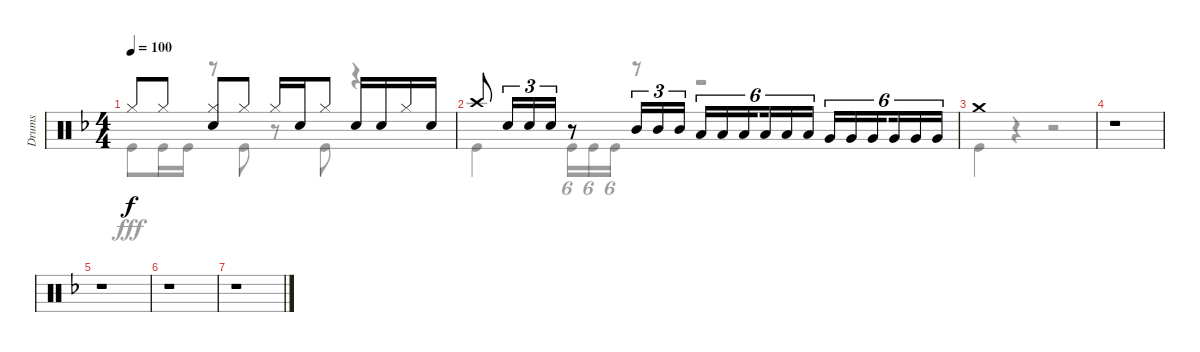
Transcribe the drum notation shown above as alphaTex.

\track ("Drums" "Drums") {instrument percussion}
\staff {score}
\articulation defaults
\voice
\ts (4 4)
\tempo 100
\clef neutral
\ks f "Hi-Hat (closed)".8{dy f} "Hi-Hat (closed)".8
("Hi-Hat (closed)" "Snare (hit) 2").8 "Hi-Hat (closed)".8 "Hi-Hat (closed)".16 "Snare (hit) 2".16 "Hi-Hat (closed)".8 "Snare (hit) 2".16 "Snare (hit) 2".16 "Hi-Hat (closed)".16 "Snare (hit) 2".16 |
"Crash high (hit)".8 "Snare (hit) 2".16{tu (3 2)} "Snare (hit) 2".16{tu (3 2)} "Snare (hit) 2".16{tu (3 2)} r.8 "Mid Tom (hit)".16{tu (3 2)} "Mid Tom (hit)".16{tu (3 2)} "Mid Tom (hit)".16{tu (3 2)} "Low Tom (hit)".16{tu (6 4)} "Low Tom (hit)".16{tu (6 4)} "Low Tom (hit)".16{tu (6 4) beam splitsecondary} "Low Tom (hit)".16{tu (6 4)} "Low Tom (hit)".16{tu (6 4)} "Low Tom (hit)".16{tu (6 4)} "Very Low Tom (hit)".16{tu (6 4)} "Very Low Tom (hit)".16{tu (6 4)} "Very Low Tom (hit)".16{tu (6 4) beam splitsecondary} "Very Low Tom (hit)".16{tu (6 4)} "Very Low Tom (hit)".16{tu (6 4)} "Very Low Tom (hit)".16{tu (6 4)} |
"Crash medium (hit)".1 |
r.1 |
r.1 |
r.1 |
r.1
\voice
\clef neutral
\ottava regular
\simile none
\ks f "Kick (hit)".8{dy fff} "Kick (hit)".16 "Kick (hit)".16
r.8 "Kick (hit)".8 r.8 "Kick (hit)".8 r.4 |
"Kick (hit)".4 "Kick (hit)".16{tu (6 4)} "Kick (hit)".16{tu (6 4)} "Kick (hit)".16{tu (6 4)} r.8 r.2 |
"Kick (hit)".4 r.4 r.2 |
r.1 |
r.1 |
r.1 |
r.1
